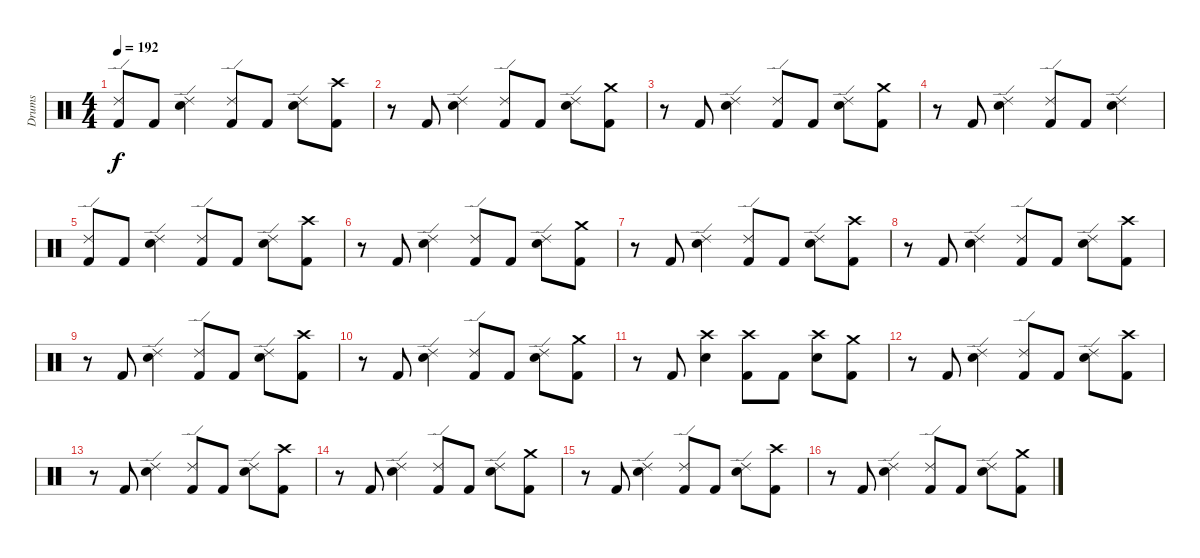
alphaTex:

\track ("Drums" "Drums") {instrument percussion}
\staff {score}
\articulation defaults
\ts (4 4)
\tempo 192
\clef neutral
\ks c
("Kick (hit) 2" "Ride (edge) 2").8{dy f} "Kick (hit) 2".8 ("Electric Snare (hit)" "Ride (edge) 2").4 ("Kick (hit) 2" "Ride (edge) 2").8 "Kick (hit) 2".8 ("Electric Snare (hit)" "Ride (edge) 2").8 ("Kick (hit) 2" "Crash high (hit)").8 |
r.8 "Kick (hit) 2".8 ("Electric Snare (hit)" "Ride (edge) 2").4 ("Kick (hit) 2" "Ride (edge) 2").8 "Kick (hit) 2".8 ("Electric Snare (hit)" "Ride (edge) 2").8 ("Kick (hit) 2" "Crash medium (hit)").8 |
r.8 "Kick (hit) 2".8 ("Electric Snare (hit)" "Ride (edge) 2").4 ("Kick (hit) 2" "Ride (edge) 2").8 "Kick (hit) 2".8 ("Electric Snare (hit)" "Ride (edge) 2").8 ("Kick (hit) 2" "Crash medium (hit)").8 |
r.8 "Kick (hit) 2".8 ("Electric Snare (hit)" "Ride (edge) 2").4 ("Kick (hit) 2" "Ride (edge) 2").8 "Kick (hit) 2".8 ("Electric Snare (hit)" "Ride (edge) 2").4 |
("Kick (hit) 2" "Ride (edge) 2").8 "Kick (hit) 2".8 ("Electric Snare (hit)" "Ride (edge) 2").4 ("Kick (hit) 2" "Ride (edge) 2").8 "Kick (hit) 2".8 ("Electric Snare (hit)" "Ride (edge) 2").8 ("Kick (hit) 2" "Crash high (hit)").8 |
r.8 "Kick (hit) 2".8 ("Electric Snare (hit)" "Ride (edge) 2").4 ("Kick (hit) 2" "Ride (edge) 2").8 "Kick (hit) 2".8 ("Electric Snare (hit)" "Ride (edge) 2").8 ("Kick (hit) 2" "Crash medium (hit)").8 |
r.8 "Kick (hit) 2".8 ("Electric Snare (hit)" "Ride (edge) 2").4 ("Kick (hit) 2" "Ride (edge) 2").8 "Kick (hit) 2".8 ("Electric Snare (hit)" "Ride (edge) 2").8 ("Kick (hit) 2" "Crash high (hit)").8 |
r.8 "Kick (hit) 2".8 ("Electric Snare (hit)" "Ride (edge) 2").4 ("Kick (hit) 2" "Ride (edge) 2").8 "Kick (hit) 2".8 ("Electric Snare (hit)" "Ride (edge) 2").8 ("Kick (hit) 2" "Crash high (hit)").8 |
r.8 "Kick (hit) 2".8 ("Electric Snare (hit)" "Ride (edge) 2").4 ("Kick (hit) 2" "Ride (edge) 2").8 "Kick (hit) 2".8 ("Electric Snare (hit)" "Ride (edge) 2").8 ("Kick (hit) 2" "Crash high (hit)").8 |
r.8 "Kick (hit) 2".8 ("Electric Snare (hit)" "Ride (edge) 2").4 ("Kick (hit) 2" "Ride (edge) 2").8 "Kick (hit) 2".8 ("Electric Snare (hit)" "Ride (edge) 2").8 ("Kick (hit) 2" "Crash medium (hit)").8 |
r.8 "Kick (hit) 2".8 ("Electric Snare (hit)" "Crash high (hit)").4 ("Kick (hit) 2" "Crash high (hit)").8 "Kick (hit) 2".8 ("Electric Snare (hit)" "Crash high (hit)").8 ("Kick (hit) 2" "Crash medium (hit)").8 |
r.8 "Kick (hit) 2".8 ("Electric Snare (hit)" "Ride (edge) 2").4 ("Kick (hit) 2" "Ride (edge) 2").8 "Kick (hit) 2".8 ("Electric Snare (hit)" "Ride (edge) 2").8 ("Kick (hit) 2" "Crash high (hit)").8 |
r.8 "Kick (hit) 2".8 ("Electric Snare (hit)" "Ride (edge) 2").4 ("Kick (hit) 2" "Ride (edge) 2").8 "Kick (hit) 2".8 ("Electric Snare (hit)" "Ride (edge) 2").8 ("Kick (hit) 2" "Crash high (hit)").8 |
r.8 "Kick (hit) 2".8 ("Electric Snare (hit)" "Ride (edge) 2").4 ("Kick (hit) 2" "Ride (edge) 2").8 "Kick (hit) 2".8 ("Electric Snare (hit)" "Ride (edge) 2").8 ("Kick (hit) 2" "Crash medium (hit)").8 |
r.8 "Kick (hit) 2".8 ("Electric Snare (hit)" "Ride (edge) 2").4 ("Kick (hit) 2" "Ride (edge) 2").8 "Kick (hit) 2".8 ("Electric Snare (hit)" "Ride (edge) 2").8 ("Kick (hit) 2" "Crash high (hit)").8 |
r.8 "Kick (hit) 2".8 ("Electric Snare (hit)" "Ride (edge) 2").4 ("Kick (hit) 2" "Ride (edge) 2").8 "Kick (hit) 2".8 ("Electric Snare (hit)" "Ride (edge) 2").8 ("Kick (hit) 2" "Crash medium (hit)").8
